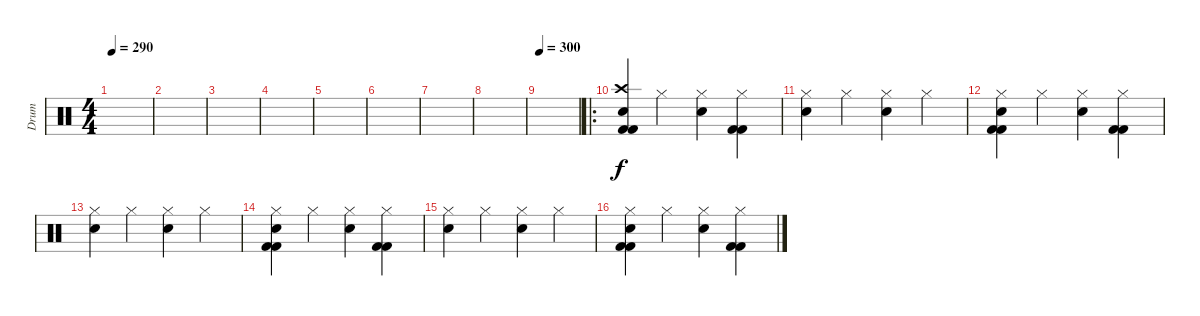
\track ("Drum" "Drum") {instrument percussion}
\staff {score}
\articulation defaults
\ts (4 4)
\tempo 290
\tempo 110
\tempo 290
\clef neutral
\ks c
|
|
|
|
|
|
|
|
\tempo 300
|
\ro
("Electric Snare (hit)" "Crash high (hit)" "Kick (hit) 2" "Kick (hit) 2").4 "Hi-Hat (closed)".4 ("Electric Snare (hit)" "Hi-Hat (closed)").4 ("Hi-Hat (closed)" "Kick (hit) 2" "Kick (hit) 2").4 |
("Electric Snare (hit)" "Hi-Hat (closed)").4 "Hi-Hat (closed)".4 ("Electric Snare (hit)" "Hi-Hat (closed)").4 "Hi-Hat (closed)".4 |
("Electric Snare (hit)" "Hi-Hat (closed)" "Kick (hit) 2" "Kick (hit) 2").4 "Hi-Hat (closed)".4 ("Electric Snare (hit)" "Hi-Hat (closed)").4 ("Hi-Hat (closed)" "Kick (hit) 2" "Kick (hit) 2").4 |
("Electric Snare (hit)" "Hi-Hat (closed)").4 "Hi-Hat (closed)".4 ("Electric Snare (hit)" "Hi-Hat (closed)").4 "Hi-Hat (closed)".4 |
("Electric Snare (hit)" "Hi-Hat (closed)" "Kick (hit) 2" "Kick (hit) 2").4 "Hi-Hat (closed)".4 ("Electric Snare (hit)" "Hi-Hat (closed)").4 ("Hi-Hat (closed)" "Kick (hit) 2" "Kick (hit) 2").4 |
("Electric Snare (hit)" "Hi-Hat (closed)").4 "Hi-Hat (closed)".4 ("Electric Snare (hit)" "Hi-Hat (closed)").4 "Hi-Hat (closed)".4 |
("Electric Snare (hit)" "Hi-Hat (closed)" "Kick (hit) 2" "Kick (hit) 2").4 "Hi-Hat (closed)".4 ("Electric Snare (hit)" "Hi-Hat (closed)").4 ("Hi-Hat (closed)" "Kick (hit) 2" "Kick (hit) 2").4
